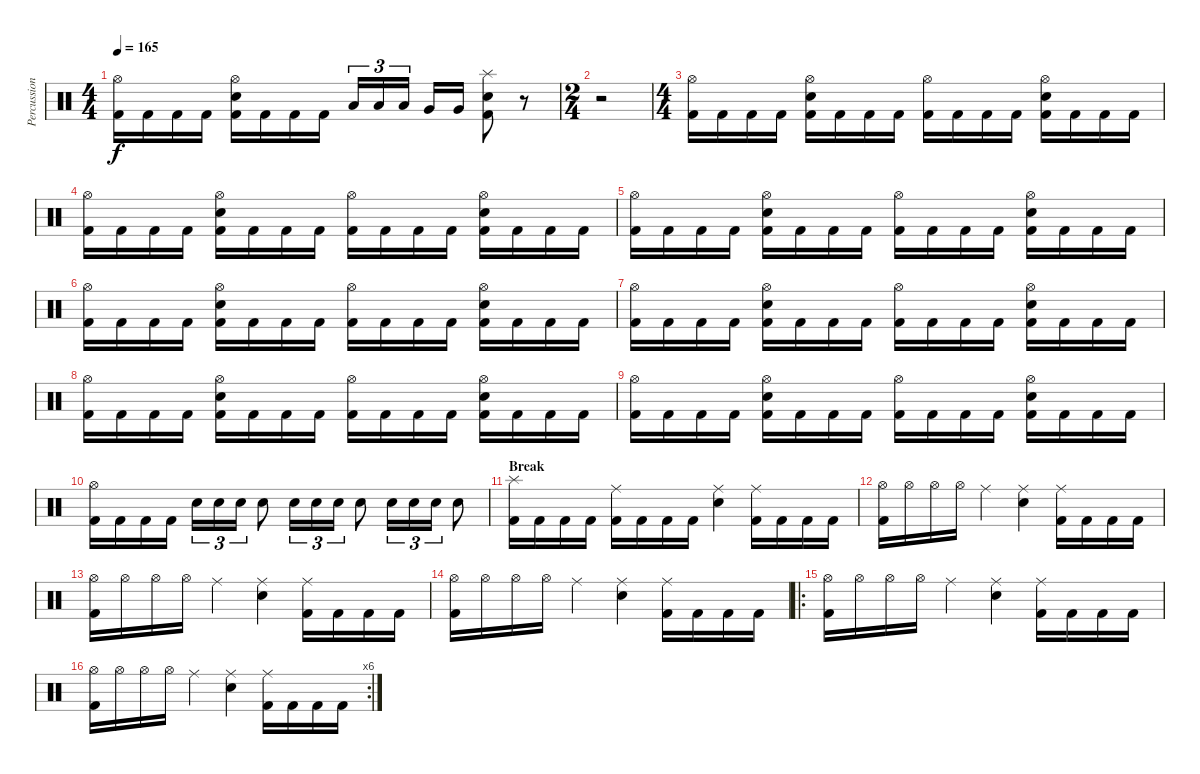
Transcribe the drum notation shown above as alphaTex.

\track ("Percussions" "Percussion") {instrument percussion}
\staff {score}
\articulation defaults
\ts (4 4)
\tempo 165
\clef neutral
\ks c
("Hi-Hat (open)" "Kick (hit) 2").16{dy f} "Kick (hit) 2".16 "Kick (hit) 2".16 "Kick (hit) 2".16 ("Hi-Hat (open)" "Electric Snare (hit)" "Kick (hit) 2").16 "Kick (hit) 2".16 "Kick (hit) 2".16 "Kick (hit) 2".16 "Low Tom (hit)".16{tu (3 2)} "Low Tom (hit)".16{tu (3 2)} "Low Tom (hit)".16{tu (3 2)} "Very Low Tom (hit)".16 "Very Low Tom (hit)".16 ("Splash (hit)" "Electric Snare (hit)" "Kick (hit) 2").8 r.8 |
\ts (2 4)
r.2 |
\ts (4 4)
("Hi-Hat (open)" "Kick (hit) 2").16 "Kick (hit) 2".16 "Kick (hit) 2".16 "Kick (hit) 2".16 ("Hi-Hat (open)" "Electric Snare (hit)" "Kick (hit) 2").16 "Kick (hit) 2".16 "Kick (hit) 2".16 "Kick (hit) 2".16 ("Hi-Hat (open)" "Kick (hit) 2").16 "Kick (hit) 2".16 "Kick (hit) 2".16 "Kick (hit) 2".16 ("Hi-Hat (open)" "Electric Snare (hit)" "Kick (hit) 2").16 "Kick (hit) 2".16 "Kick (hit) 2".16 "Kick (hit) 2".16 |
("Hi-Hat (open)" "Kick (hit) 2").16 "Kick (hit) 2".16 "Kick (hit) 2".16 "Kick (hit) 2".16 ("Hi-Hat (open)" "Electric Snare (hit)" "Kick (hit) 2").16 "Kick (hit) 2".16 "Kick (hit) 2".16 "Kick (hit) 2".16 ("Hi-Hat (open)" "Kick (hit) 2").16 "Kick (hit) 2".16 "Kick (hit) 2".16 "Kick (hit) 2".16 ("Hi-Hat (open)" "Electric Snare (hit)" "Kick (hit) 2").16 "Kick (hit) 2".16 "Kick (hit) 2".16 "Kick (hit) 2".16 |
("Hi-Hat (open)" "Kick (hit) 2").16 "Kick (hit) 2".16 "Kick (hit) 2".16 "Kick (hit) 2".16 ("Hi-Hat (open)" "Electric Snare (hit)" "Kick (hit) 2").16 "Kick (hit) 2".16 "Kick (hit) 2".16 "Kick (hit) 2".16 ("Hi-Hat (open)" "Kick (hit) 2").16 "Kick (hit) 2".16 "Kick (hit) 2".16 "Kick (hit) 2".16 ("Hi-Hat (open)" "Electric Snare (hit)" "Kick (hit) 2").16 "Kick (hit) 2".16 "Kick (hit) 2".16 "Kick (hit) 2".16 |
("Hi-Hat (open)" "Kick (hit) 2").16 "Kick (hit) 2".16 "Kick (hit) 2".16 "Kick (hit) 2".16 ("Hi-Hat (open)" "Electric Snare (hit)" "Kick (hit) 2").16 "Kick (hit) 2".16 "Kick (hit) 2".16 "Kick (hit) 2".16 ("Hi-Hat (open)" "Kick (hit) 2").16 "Kick (hit) 2".16 "Kick (hit) 2".16 "Kick (hit) 2".16 ("Hi-Hat (open)" "Electric Snare (hit)" "Kick (hit) 2").16 "Kick (hit) 2".16 "Kick (hit) 2".16 "Kick (hit) 2".16 |
("Hi-Hat (open)" "Kick (hit) 2").16 "Kick (hit) 2".16 "Kick (hit) 2".16 "Kick (hit) 2".16 ("Hi-Hat (open)" "Electric Snare (hit)" "Kick (hit) 2").16 "Kick (hit) 2".16 "Kick (hit) 2".16 "Kick (hit) 2".16 ("Hi-Hat (open)" "Kick (hit) 2").16 "Kick (hit) 2".16 "Kick (hit) 2".16 "Kick (hit) 2".16 ("Hi-Hat (open)" "Electric Snare (hit)" "Kick (hit) 2").16 "Kick (hit) 2".16 "Kick (hit) 2".16 "Kick (hit) 2".16 |
("Hi-Hat (open)" "Kick (hit) 2").16 "Kick (hit) 2".16 "Kick (hit) 2".16 "Kick (hit) 2".16 ("Hi-Hat (open)" "Electric Snare (hit)" "Kick (hit) 2").16 "Kick (hit) 2".16 "Kick (hit) 2".16 "Kick (hit) 2".16 ("Hi-Hat (open)" "Kick (hit) 2").16 "Kick (hit) 2".16 "Kick (hit) 2".16 "Kick (hit) 2".16 ("Hi-Hat (open)" "Electric Snare (hit)" "Kick (hit) 2").16 "Kick (hit) 2".16 "Kick (hit) 2".16 "Kick (hit) 2".16 |
("Hi-Hat (open)" "Kick (hit) 2").16 "Kick (hit) 2".16 "Kick (hit) 2".16 "Kick (hit) 2".16 ("Hi-Hat (open)" "Electric Snare (hit)" "Kick (hit) 2").16 "Kick (hit) 2".16 "Kick (hit) 2".16 "Kick (hit) 2".16 ("Hi-Hat (open)" "Kick (hit) 2").16 "Kick (hit) 2".16 "Kick (hit) 2".16 "Kick (hit) 2".16 ("Hi-Hat (open)" "Electric Snare (hit)" "Kick (hit) 2").16 "Kick (hit) 2".16 "Kick (hit) 2".16 "Kick (hit) 2".16 |
("Hi-Hat (open)" "Kick (hit) 2").16 "Kick (hit) 2".16 "Kick (hit) 2".16 "Kick (hit) 2".16 "Electric Snare (hit)".16{tu (3 2)} "Electric Snare (hit)".16{tu (3 2)} "Electric Snare (hit)".16{tu (3 2)} "Electric Snare (hit)".8 "Electric Snare (hit)".16{tu (3 2)} "Electric Snare (hit)".16{tu (3 2)} "Electric Snare (hit)".16{tu (3 2)} "Electric Snare (hit)".8 "Electric Snare (hit)".16{tu (3 2)} "Electric Snare (hit)".16{tu (3 2)} "Electric Snare (hit)".16{tu (3 2)} "Electric Snare (hit)".8 |
\section ("" "Break")
("Splash (hit)" "Kick (hit) 2").16 "Kick (hit) 2".16 "Kick (hit) 2".16 "Kick (hit) 2".16 ("Ride (middle)" "Kick (hit) 2").16 "Kick (hit) 2".16 "Kick (hit) 2".16 "Kick (hit) 2".16 ("Ride (middle)" "Electric Snare (hit)").4 ("Ride (middle)" "Kick (hit) 2").16 "Kick (hit) 2".16 "Kick (hit) 2".16 "Kick (hit) 2".16 |
("Hi-Hat (open)" "Kick (hit) 2").16 "Hi-Hat (open)".16 "Hi-Hat (open)".16 "Hi-Hat (open)".16 "Ride (middle)".4 ("Ride (middle)" "Electric Snare (hit)").4 ("Ride (middle)" "Kick (hit) 2").16 "Kick (hit) 2".16 "Kick (hit) 2".16 "Kick (hit) 2".16 |
("Hi-Hat (open)" "Kick (hit) 2").16 "Hi-Hat (open)".16 "Hi-Hat (open)".16 "Hi-Hat (open)".16 "Ride (middle)".4 ("Ride (middle)" "Electric Snare (hit)").4 ("Ride (middle)" "Kick (hit) 2").16 "Kick (hit) 2".16 "Kick (hit) 2".16 "Kick (hit) 2".16 |
("Hi-Hat (open)" "Kick (hit) 2").16 "Hi-Hat (open)".16 "Hi-Hat (open)".16 "Hi-Hat (open)".16 "Ride (middle)".4 ("Ride (middle)" "Electric Snare (hit)").4 ("Ride (middle)" "Kick (hit) 2").16 "Kick (hit) 2".16 "Kick (hit) 2".16 "Kick (hit) 2".16 |
\ro
("Hi-Hat (open)" "Kick (hit) 2").16 "Hi-Hat (open)".16 "Hi-Hat (open)".16 "Hi-Hat (open)".16 "Ride (middle)".4 ("Ride (middle)" "Electric Snare (hit)").4 ("Ride (middle)" "Kick (hit) 2").16 "Kick (hit) 2".16 "Kick (hit) 2".16 "Kick (hit) 2".16 |
\rc 6
("Hi-Hat (open)" "Kick (hit) 2").16 "Hi-Hat (open)".16 "Hi-Hat (open)".16 "Hi-Hat (open)".16 "Ride (middle)".4 ("Ride (middle)" "Electric Snare (hit)").4 ("Ride (middle)" "Kick (hit) 2").16 "Kick (hit) 2".16 "Kick (hit) 2".16 "Kick (hit) 2".16
